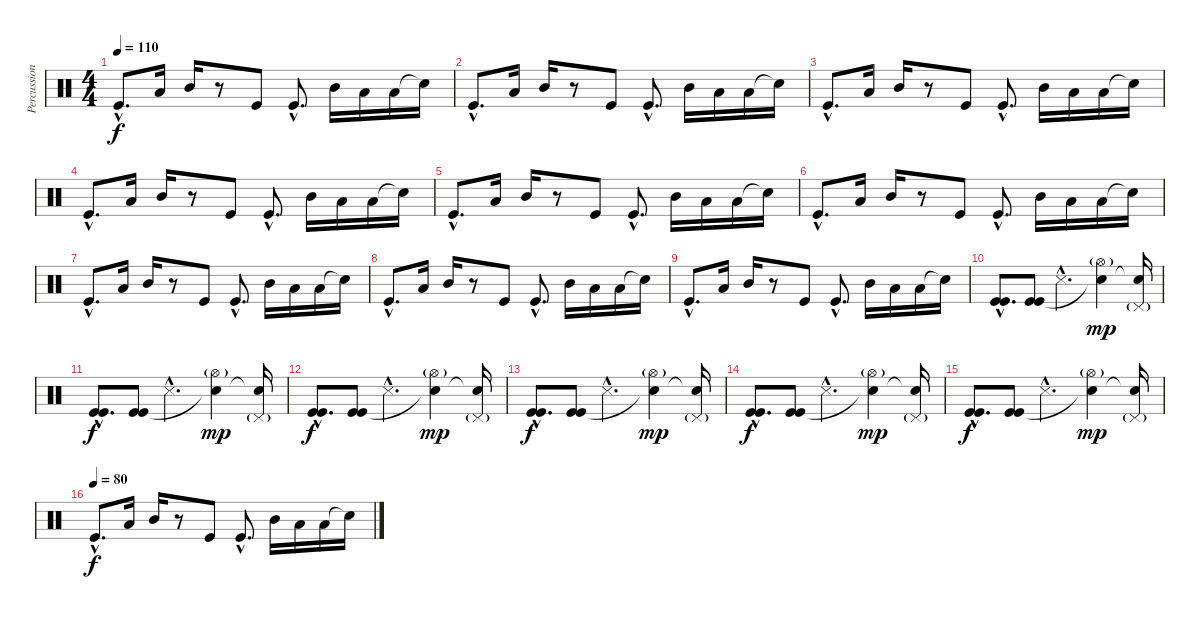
\track ("Percussions" "Percussion") {instrument percussion}
\staff {score}
\articulation defaults
\ts (4 4)
\tempo 110
\clef neutral
\ks c "Kick (hit)"{hac}.8{d dy f} "Low Floor Tom (hit)".16 "Mid Tom (hit)".16
r.8 "Kick (hit)".8 "Kick (hit)"{hac}.8{d} "Mid Tom (hit)".16 "Low Tom (hit)".16 "Low Floor Tom (hit)".16 "Snare (hit)"{t}.16 |
"Kick (hit)"{hac}.8{d} "Low Floor Tom (hit)".16 "Mid Tom (hit)".16 r.8 "Kick (hit)".8 "Kick (hit)"{hac}.8{d} "Mid Tom (hit)".16 "Low Tom (hit)".16 "Low Floor Tom (hit)".16 "Snare (hit)"{t}.16 |
"Kick (hit)"{hac}.8{d} "Low Floor Tom (hit)".16 "Mid Tom (hit)".16 r.8 "Kick (hit)".8 "Kick (hit)"{hac}.8{d} "Mid Tom (hit)".16 "Low Tom (hit)".16 "Low Floor Tom (hit)".16 "Snare (hit)"{t}.16 |
"Kick (hit)"{hac}.8{d} "Low Floor Tom (hit)".16 "Mid Tom (hit)".16 r.8 "Kick (hit)".8 "Kick (hit)"{hac}.8{d} "Mid Tom (hit)".16 "Low Tom (hit)".16 "Low Floor Tom (hit)".16 "Snare (hit)"{t}.16 |
"Kick (hit)"{hac}.8{d} "Low Floor Tom (hit)".16 "Mid Tom (hit)".16 r.8 "Kick (hit)".8 "Kick (hit)"{hac}.8{d} "Mid Tom (hit)".16 "Low Tom (hit)".16 "Low Floor Tom (hit)".16 "Snare (hit)"{t}.16 |
"Kick (hit)"{hac}.8{d} "Low Floor Tom (hit)".16 "Mid Tom (hit)".16 r.8 "Kick (hit)".8 "Kick (hit)"{hac}.8{d} "Mid Tom (hit)".16 "Low Tom (hit)".16 "Low Floor Tom (hit)".16 "Snare (hit)"{t}.16 |
"Kick (hit)"{hac}.8{d} "Low Floor Tom (hit)".16 "Mid Tom (hit)".16 r.8 "Kick (hit)".8 "Kick (hit)"{hac}.8{d} "Mid Tom (hit)".16 "Low Tom (hit)".16 "Low Floor Tom (hit)".16 "Snare (hit)"{t}.16 |
"Kick (hit)"{hac}.8{d} "Low Floor Tom (hit)".16 "Mid Tom (hit)".16 r.8 "Kick (hit)".8 "Kick (hit)"{hac}.8{d} "Mid Tom (hit)".16 "Low Tom (hit)".16 "Low Floor Tom (hit)".16 "Snare (hit)"{t}.16 |
"Kick (hit)"{hac}.8{d} "Low Floor Tom (hit)".16 "Mid Tom (hit)".16 r.8 "Kick (hit)".8 "Kick (hit)"{hac}.8{d} "Mid Tom (hit)".16 "Low Tom (hit)".16 "Low Floor Tom (hit)".16 "Snare (hit)"{t}.16 |
("Kick (hit)"{hac} "Kick (hit)"{hac}).8{d} ("Kick (hit)" "Kick (hit)").8 "Snare (side stick) 3"{hac}.4{d} ("Hi-Hat (open)"{g} "Snare (hit)"{t}).4{dy mp} ("Pedal Hi-Hat (hit)"{g} "Snare (hit)"{t}).16 |
("Kick (hit)"{hac} "Kick (hit)"{hac}).8{d dy f} ("Kick (hit)" "Kick (hit)").8 "Snare (side stick) 3"{hac}.4{d} ("Hi-Hat (open)"{g} "Snare (hit)"{t}).4{dy mp} ("Pedal Hi-Hat (hit)"{g} "Snare (hit)"{t}).16 |
("Kick (hit)"{hac} "Kick (hit)"{hac}).8{d dy f} ("Kick (hit)" "Kick (hit)").8 "Snare (side stick) 3"{hac}.4{d} ("Hi-Hat (open)"{g} "Snare (hit)"{t}).4{dy mp} ("Pedal Hi-Hat (hit)"{g} "Snare (hit)"{t}).16 |
("Kick (hit)"{hac} "Kick (hit)"{hac}).8{d dy f} ("Kick (hit)" "Kick (hit)").8 "Snare (side stick) 3"{hac}.4{d} ("Hi-Hat (open)"{g} "Snare (hit)"{t}).4{dy mp} ("Pedal Hi-Hat (hit)"{g} "Snare (hit)"{t}).16 |
("Kick (hit)"{hac} "Kick (hit)"{hac}).8{d dy f} ("Kick (hit)" "Kick (hit)").8 "Snare (side stick) 3"{hac}.4{d} ("Hi-Hat (open)"{g} "Snare (hit)"{t}).4{dy mp} ("Pedal Hi-Hat (hit)"{g} "Snare (hit)"{t}).16 |
("Kick (hit)"{hac} "Kick (hit)"{hac}).8{d dy f} ("Kick (hit)" "Kick (hit)").8 "Snare (side stick) 3"{hac}.4{d} ("Hi-Hat (open)"{g} "Snare (hit)"{t}).4{dy mp} ("Pedal Hi-Hat (hit)"{g} "Snare (hit)"{t}).16 |
\tempo (80)
"Kick (hit)"{hac}.8{d dy f} "Low Floor Tom (hit)".16 "Mid Tom (hit)".16 r.8 "Kick (hit)".8 "Kick (hit)"{hac}.8{d} "Mid Tom (hit)".16 "Low Tom (hit)".16 "Low Floor Tom (hit)".16 "Snare (hit)"{t}.16
